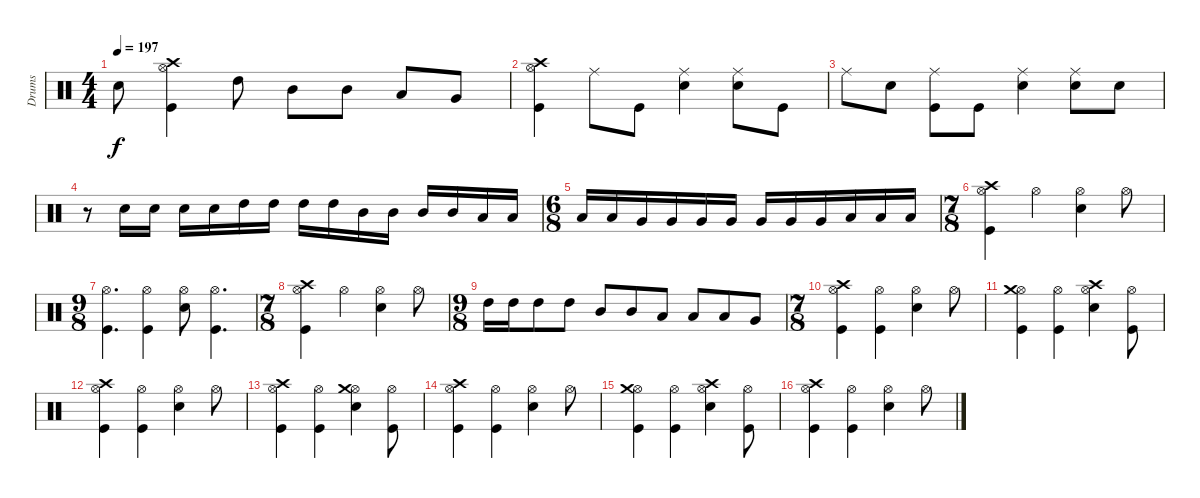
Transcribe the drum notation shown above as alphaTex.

\track ("Drums" "Drums") {instrument percussion}
\staff {score}
\articulation defaults
\ts (4 4)
\tempo 197
\clef neutral
\ks c "Electric Snare (hit)".8{dy f}
("Crash high (hit)" "Hi-Hat (open)" "Kick (hit)").4 "High Tom (hit)".8 "Mid Tom (hit)".8 "Mid Tom (hit)".8 "Low Tom (hit)".8 "Very Low Tom (hit)".8 |
("Hi-Hat (open)" "Crash high (hit)" "Kick (hit)").4 "Ride (middle)".8 "Kick (hit)".8 ("Ride (middle)" "Electric Snare (hit)").4 ("Ride (middle)" "Electric Snare (hit)").8 "Kick (hit)".8 |
"Ride (middle)".8 "Electric Snare (hit)".8 ("Ride (middle)" "Kick (hit)").8 "Kick (hit)".8 ("Ride (middle)" "Electric Snare (hit)").4 ("Ride (middle)" "Electric Snare (hit)").8 "Electric Snare (hit)".8 |
r.8 "Electric Snare (hit)".16 "Electric Snare (hit)".16 "Electric Snare (hit)".16 "Electric Snare (hit)".16 "High Tom (hit)".16 "High Tom (hit)".16 "High Tom (hit)".16 "High Tom (hit)".16 "Mid Tom (hit)".16 "Mid Tom (hit)".16 "Mid Tom (hit)".16 "Mid Tom (hit)".16 "Low Tom (hit)".16 "Low Tom (hit)".16 |
\ts (6 8)
"Low Tom (hit)".16 "Low Tom (hit)".16 "Very Low Tom (hit)".16 "Very Low Tom (hit)".16 "Very Low Tom (hit)".16 "Very Low Tom (hit)".16 "Very Low Tom (hit)".16 "Very Low Tom (hit)".16 "Very Low Tom (hit)".16 "Low Floor Tom (hit)".16 "Low Floor Tom (hit)".16 "Low Floor Tom (hit)".16 |
\ts (7 8)
("Crash high (hit)" "Hi-Hat (open)" "Kick (hit)").4 "Hi-Hat (open)".4 ("Hi-Hat (open)" "Electric Snare (hit)").4 "Hi-Hat (open)".8 |
\ts (9 8)
("Hi-Hat (open)" "Kick (hit)").4{d} ("Hi-Hat (open)" "Kick (hit)").4 ("Hi-Hat (open)" "Electric Snare (hit)").8 ("Hi-Hat (open)" "Kick (hit)").4{d} |
\ts (7 8)
("Crash high (hit)" "Hi-Hat (open)" "Kick (hit)").4 "Hi-Hat (open)".4 ("Hi-Hat (open)" "Electric Snare (hit)").4 "Hi-Hat (open)".8 |
\ts (9 8)
"High Tom (hit)".16 "High Tom (hit)".16 "High Tom (hit)".8 "High Tom (hit)".8 "Mid Tom (hit)".8 "Mid Tom (hit)".8 "Low Tom (hit)".8 "Low Tom (hit)".8 "Low Tom (hit)".8 "Very Low Tom (hit)".8 |
\ts (7 8)
("Hi-Hat (open)" "Crash high (hit)" "Kick (hit)").4 ("Hi-Hat (open)" "Kick (hit)").4 ("Hi-Hat (open)" "Electric Snare (hit)").4 "Hi-Hat (open)".8 |
("Hi-Hat (open)" "Crash medium (hit)" "Kick (hit)").4 ("Hi-Hat (open)" "Kick (hit)").4 ("Hi-Hat (open)" "Crash high (hit)" "Electric Snare (hit)").4 ("Hi-Hat (open)" "Kick (hit)").8 |
("Hi-Hat (open)" "Crash high (hit)" "Kick (hit)").4 ("Hi-Hat (open)" "Kick (hit)").4 ("Hi-Hat (open)" "Electric Snare (hit)").4 "Hi-Hat (open)".8 |
("Hi-Hat (open)" "Crash high (hit)" "Kick (hit)").4 ("Hi-Hat (open)" "Kick (hit)").4 ("Hi-Hat (open)" "Crash medium (hit)" "Electric Snare (hit)").4 ("Hi-Hat (open)" "Kick (hit)").8 |
("Hi-Hat (open)" "Crash high (hit)" "Kick (hit)").4 ("Hi-Hat (open)" "Kick (hit)").4 ("Hi-Hat (open)" "Electric Snare (hit)").4 "Hi-Hat (open)".8 |
("Hi-Hat (open)" "Crash medium (hit)" "Kick (hit)").4 ("Hi-Hat (open)" "Kick (hit)").4 ("Hi-Hat (open)" "Crash high (hit)" "Electric Snare (hit)").4 ("Hi-Hat (open)" "Kick (hit)").8 |
("Hi-Hat (open)" "Crash high (hit)" "Kick (hit)").4 ("Hi-Hat (open)" "Kick (hit)").4 ("Hi-Hat (open)" "Electric Snare (hit)").4 "Hi-Hat (open)".8
